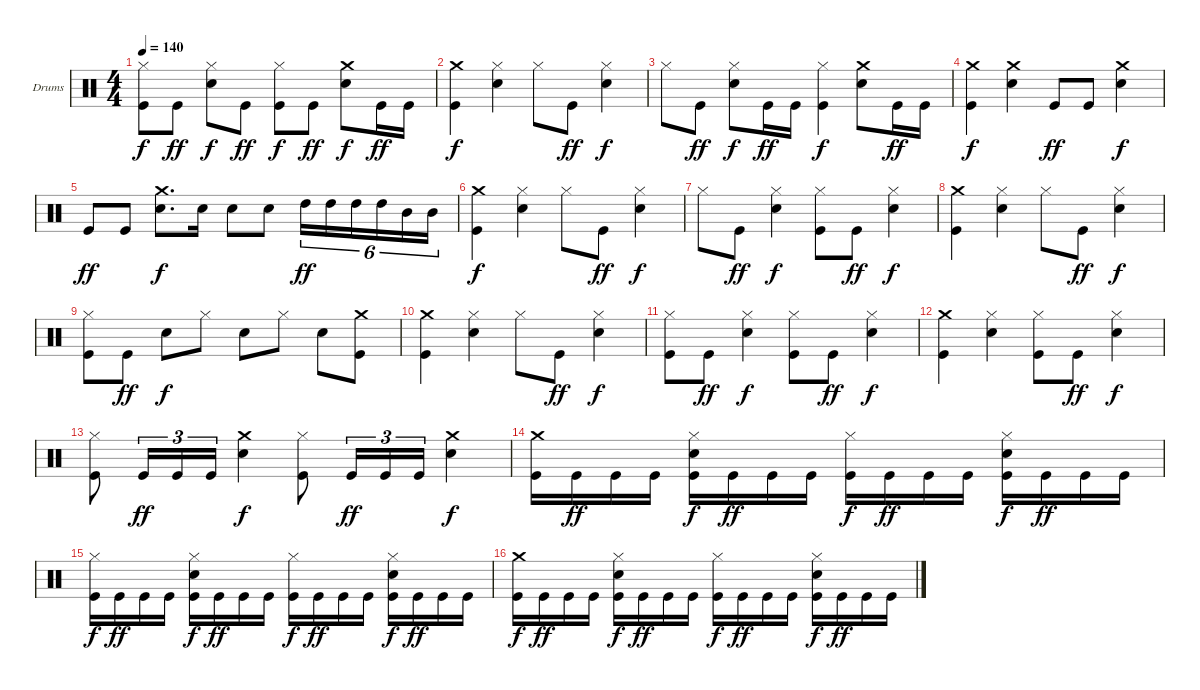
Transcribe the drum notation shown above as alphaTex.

\defaultSystemsLayout 4
\bracketExtendMode groupsimilarinstruments
\firstSystemTrackNameOrientation horizontal
\otherSystemsTrackNameOrientation horizontal
\track ("Drumkit" "Drums") {instrument percussion}
\staff {score}
\articulation defaults
\ts (4 4)
\tempo 140
\clef neutral
\ks c
("Hi-Hat (closed)" "Kick (hit)").8{dy f} "Kick (hit)".8{dy ff} ("Hi-Hat (closed)" "Snare (hit) 2").8{dy f} "Kick (hit)".8{dy ff} ("Hi-Hat (closed)" "Kick (hit)").8{dy f} "Kick (hit)".8{dy ff} ("Crash medium (hit)" "Snare (hit) 2").8{dy f} "Kick (hit)".16{dy ff} "Kick (hit)".16 |
("Crash medium (hit)" "Kick (hit)").4{dy f} ("Hi-Hat (closed)" "Snare (hit) 2").4 "Hi-Hat (closed)".8 "Kick (hit)".8{dy ff} ("Hi-Hat (closed)" "Snare (hit) 2").4{dy f} |
"Hi-Hat (closed)".8 "Kick (hit)".8{dy ff} ("Hi-Hat (closed)" "Snare (hit) 2").8{dy f} "Kick (hit)".16{dy ff} "Kick (hit)".16 ("Hi-Hat (closed)" "Kick (hit)").4{dy f} ("Crash medium (hit)" "Snare (hit) 2").8 "Kick (hit)".16{dy ff} "Kick (hit)".16 |
("Crash medium (hit)" "Kick (hit)").4{dy f} ("Crash medium (hit)" "Snare (hit) 2").4 "Kick (hit)".8{dy ff} "Kick (hit)".8 ("Crash medium (hit)" "Snare (hit) 2").4{dy f} |
"Kick (hit)".8{dy ff} "Kick (hit)".8 ("Crash medium (hit)" "Snare (hit) 2").8{d dy f} "Snare (hit) 2".16 "Snare (hit) 2".8 "Snare (hit) 2".8 "High Tom (hit)".16{tu (6 4) dy ff} "High Tom (hit)".16{tu (6 4)} "High Tom (hit)".16{tu (6 4)} "High Tom (hit)".16{tu (6 4)} "Mid Tom (hit)".16{tu (6 4)} "Mid Tom (hit)".16{tu (6 4)} |
("Crash medium (hit)" "Kick (hit)").4{dy f} ("Hi-Hat (closed)" "Snare (hit) 2").4 "Hi-Hat (closed)".8 "Kick (hit)".8{dy ff} ("Hi-Hat (closed)" "Snare (hit) 2").4{dy f} |
"Hi-Hat (closed)".8 "Kick (hit)".8{dy ff} ("Hi-Hat (closed)" "Snare (hit) 2").4{dy f} ("Hi-Hat (closed)" "Kick (hit)").8 "Kick (hit)".8{dy ff} ("Hi-Hat (closed)" "Snare (hit) 2").4{dy f} |
("Crash medium (hit)" "Kick (hit)").4 ("Hi-Hat (closed)" "Snare (hit) 2").4 "Hi-Hat (closed)".8 "Kick (hit)".8{dy ff} ("Hi-Hat (closed)" "Snare (hit) 2").4{dy f} |
("Hi-Hat (closed)" "Kick (hit)").8 "Kick (hit)".8{dy ff} "Snare (hit) 2".8{dy f} "Hi-Hat (closed)".8 "Snare (hit) 2".8 "Hi-Hat (closed)".8 "Snare (hit) 2".8 ("Crash medium (hit)" "Kick (hit)").8 |
("Crash medium (hit)" "Kick (hit)").4 ("Hi-Hat (closed)" "Snare (hit) 2").4 "Hi-Hat (closed)".8 "Kick (hit)".8{dy ff} ("Hi-Hat (closed)" "Snare (hit) 2").4{dy f} |
("Hi-Hat (closed)" "Kick (hit)").8 "Kick (hit)".8{dy ff} ("Hi-Hat (closed)" "Snare (hit) 2").4{dy f} ("Hi-Hat (closed)" "Kick (hit)").8 "Kick (hit)".8{dy ff} ("Hi-Hat (closed)" "Snare (hit) 2").4{dy f} |
("Crash medium (hit)" "Kick (hit)").4 ("Hi-Hat (closed)" "Snare (hit) 2").4 ("Hi-Hat (closed)" "Kick (hit)").8 "Kick (hit)".8{dy ff} ("Hi-Hat (closed)" "Snare (hit) 2").4{dy f} |
("Hi-Hat (closed)" "Kick (hit)").8 "Kick (hit)".16{tu (3 2) dy ff} "Kick (hit)".16{tu (3 2)} "Kick (hit)".16{tu (3 2)} ("Crash medium (hit)" "Snare (hit) 2").4{dy f} ("Hi-Hat (closed)" "Kick (hit)").8 "Kick (hit)".16{tu (3 2) dy ff} "Kick (hit)".16{tu (3 2)} "Kick (hit)".16{tu (3 2)} ("Crash medium (hit)" "Snare (hit) 2").4{dy f} |
("Crash medium (hit)" "Kick (hit)").16 "Kick (hit)".16{dy ff} "Kick (hit)".16 "Kick (hit)".16 ("Hi-Hat (closed)" "Snare (hit) 2" "Kick (hit)").16{dy f} "Kick (hit)".16{dy ff} "Kick (hit)".16 "Kick (hit)".16 ("Hi-Hat (closed)" "Kick (hit)").16{dy f} "Kick (hit)".16{dy ff} "Kick (hit)".16 "Kick (hit)".16 ("Hi-Hat (closed)" "Snare (hit) 2" "Kick (hit)").16{dy f} "Kick (hit)".16{dy ff} "Kick (hit)".16 "Kick (hit)".16 |
("Hi-Hat (closed)" "Kick (hit)").16{dy f} "Kick (hit)".16{dy ff} "Kick (hit)".16 "Kick (hit)".16 ("Hi-Hat (closed)" "Snare (hit) 2" "Kick (hit)").16{dy f} "Kick (hit)".16{dy ff} "Kick (hit)".16 "Kick (hit)".16 ("Hi-Hat (closed)" "Kick (hit)").16{dy f} "Kick (hit)".16{dy ff} "Kick (hit)".16 "Kick (hit)".16 ("Hi-Hat (closed)" "Snare (hit) 2" "Kick (hit)").16{dy f} "Kick (hit)".16{dy ff} "Kick (hit)".16 "Kick (hit)".16 |
("Crash medium (hit)" "Kick (hit)").16{dy f} "Kick (hit)".16{dy ff} "Kick (hit)".16 "Kick (hit)".16 ("Hi-Hat (closed)" "Snare (hit) 2" "Kick (hit)").16{dy f} "Kick (hit)".16{dy ff} "Kick (hit)".16 "Kick (hit)".16 ("Hi-Hat (closed)" "Kick (hit)").16{dy f} "Kick (hit)".16{dy ff} "Kick (hit)".16 "Kick (hit)".16 ("Hi-Hat (closed)" "Snare (hit) 2" "Kick (hit)").16{dy f} "Kick (hit)".16{dy ff} "Kick (hit)".16 "Kick (hit)".16
